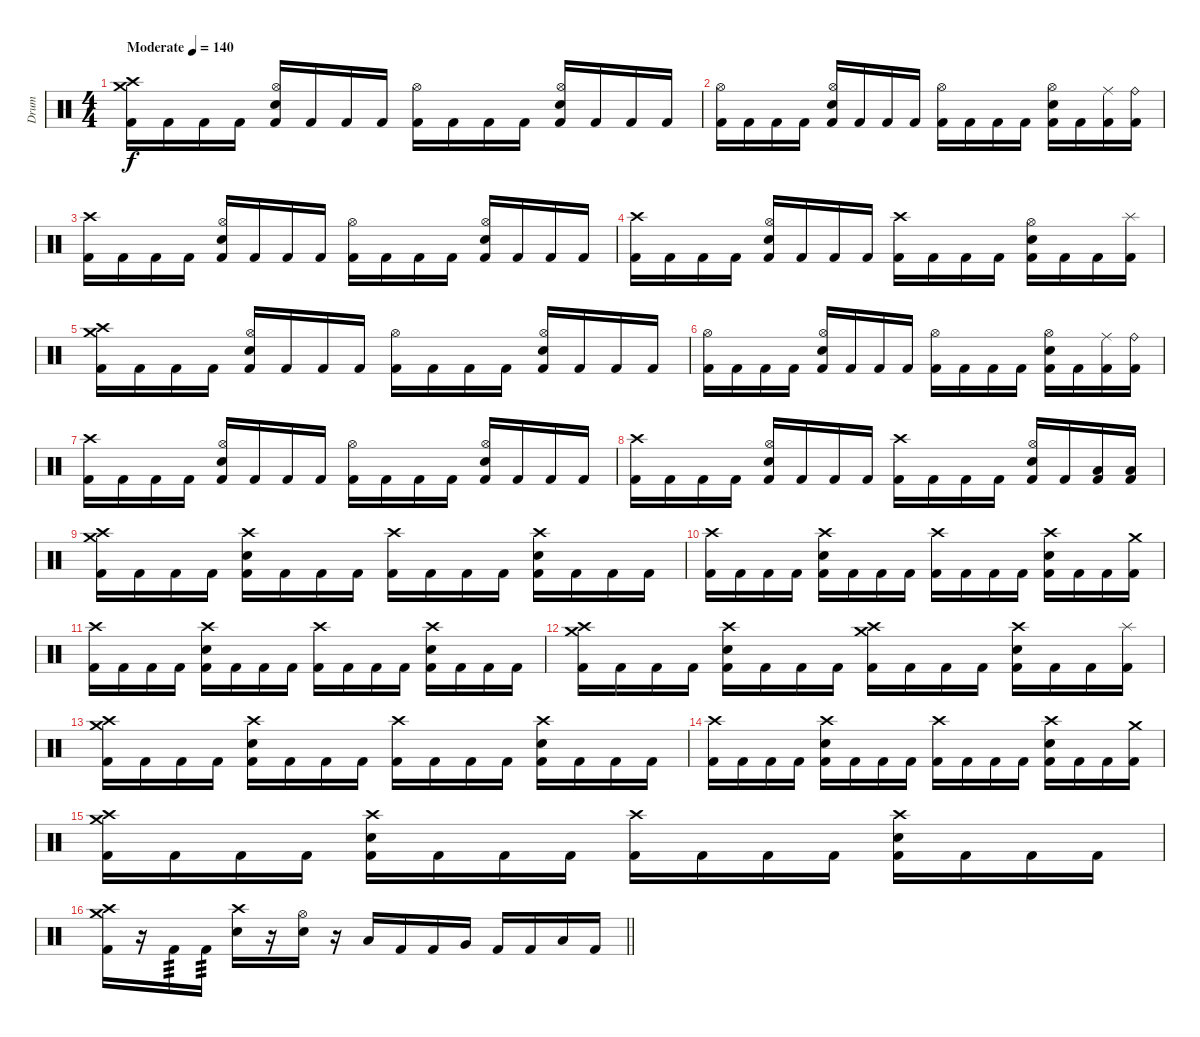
\track ("Drum" "Drum") {instrument percussion}
\staff {score}
\articulation defaults
\ts (4 4)
\section ("" "")
\tempo (140 "Moderate")
\clef neutral
\ks c
("Crash high (hit)" "Crash medium (hit)" "Kick (hit) 2").16{dy f} "Kick (hit) 2".16 "Kick (hit) 2".16 "Kick (hit) 2".16 ("Hi-Hat (open)" "Snare (hit) 2" "Kick (hit) 2").16 "Kick (hit) 2".16 "Kick (hit) 2".16 "Kick (hit) 2".16 ("Hi-Hat (open)" "Kick (hit) 2").16 "Kick (hit) 2".16 "Kick (hit) 2".16 "Kick (hit) 2".16 ("Hi-Hat (open)" "Snare (hit) 2" "Kick (hit) 2").16 "Kick (hit) 2".16 "Kick (hit) 2".16 "Kick (hit) 2".16 |
("Hi-Hat (open)" "Kick (hit) 2").16 "Kick (hit) 2".16 "Kick (hit) 2".16 "Kick (hit) 2".16 ("Hi-Hat (open)" "Snare (hit) 2" "Kick (hit) 2").16 "Kick (hit) 2".16 "Kick (hit) 2".16 "Kick (hit) 2".16 ("Hi-Hat (open)" "Kick (hit) 2").16 "Kick (hit) 2".16 "Kick (hit) 2".16 "Kick (hit) 2".16 ("Hi-Hat (open)" "Snare (hit) 2" "Kick (hit) 2").16 "Kick (hit) 2".16 ("Ride (middle)" "Kick (hit) 2").16 ("Ride (bell)" "Kick (hit) 2").16 |
("Crash high (hit)" "Kick (hit) 2").16 "Kick (hit) 2".16 "Kick (hit) 2".16 "Kick (hit) 2".16 ("Hi-Hat (open)" "Snare (hit) 2" "Kick (hit) 2").16 "Kick (hit) 2".16 "Kick (hit) 2".16 "Kick (hit) 2".16 ("Hi-Hat (open)" "Kick (hit) 2").16 "Kick (hit) 2".16 "Kick (hit) 2".16 "Kick (hit) 2".16 ("Hi-Hat (open)" "Snare (hit) 2" "Kick (hit) 2").16 "Kick (hit) 2".16 "Kick (hit) 2".16 "Kick (hit) 2".16 |
("Crash high (hit)" "Kick (hit) 2").16 "Kick (hit) 2".16 "Kick (hit) 2".16 "Kick (hit) 2".16 ("Hi-Hat (open)" "Snare (hit) 2" "Kick (hit) 2").16 "Kick (hit) 2".16 "Kick (hit) 2".16 "Kick (hit) 2".16 ("Crash high (hit)" "Kick (hit) 2").16 "Kick (hit) 2".16 "Kick (hit) 2".16 "Kick (hit) 2".16 ("Hi-Hat (open)" "Snare (hit) 2" "Kick (hit) 2").16 "Kick (hit) 2".16 "Kick (hit) 2".16 ("Splash (hit)" "Kick (hit) 2").16 |
("Crash high (hit)" "Crash medium (hit)" "Kick (hit) 2").16 "Kick (hit) 2".16 "Kick (hit) 2".16 "Kick (hit) 2".16 ("Hi-Hat (open)" "Snare (hit) 2" "Kick (hit) 2").16 "Kick (hit) 2".16 "Kick (hit) 2".16 "Kick (hit) 2".16 ("Hi-Hat (open)" "Kick (hit) 2").16 "Kick (hit) 2".16 "Kick (hit) 2".16 "Kick (hit) 2".16 ("Hi-Hat (open)" "Snare (hit) 2" "Kick (hit) 2").16 "Kick (hit) 2".16 "Kick (hit) 2".16 "Kick (hit) 2".16 |
("Hi-Hat (open)" "Kick (hit) 2").16 "Kick (hit) 2".16 "Kick (hit) 2".16 "Kick (hit) 2".16 ("Hi-Hat (open)" "Snare (hit) 2" "Kick (hit) 2").16 "Kick (hit) 2".16 "Kick (hit) 2".16 "Kick (hit) 2".16 ("Hi-Hat (open)" "Kick (hit) 2").16 "Kick (hit) 2".16 "Kick (hit) 2".16 "Kick (hit) 2".16 ("Hi-Hat (open)" "Snare (hit) 2" "Kick (hit) 2").16 "Kick (hit) 2".16 ("Ride (middle)" "Kick (hit) 2").16 ("Ride (bell)" "Kick (hit) 2").16 |
("Crash high (hit)" "Kick (hit) 2").16 "Kick (hit) 2".16 "Kick (hit) 2".16 "Kick (hit) 2".16 ("Hi-Hat (open)" "Snare (hit) 2" "Kick (hit) 2").16 "Kick (hit) 2".16 "Kick (hit) 2".16 "Kick (hit) 2".16 ("Hi-Hat (open)" "Kick (hit) 2").16 "Kick (hit) 2".16 "Kick (hit) 2".16 "Kick (hit) 2".16 ("Hi-Hat (open)" "Snare (hit) 2" "Kick (hit) 2").16 "Kick (hit) 2".16 "Kick (hit) 2".16 "Kick (hit) 2".16 |
("Crash high (hit)" "Kick (hit) 2").16 "Kick (hit) 2".16 "Kick (hit) 2".16 "Kick (hit) 2".16 ("Hi-Hat (open)" "Snare (hit) 2" "Kick (hit) 2").16 "Kick (hit) 2".16 "Kick (hit) 2".16 "Kick (hit) 2".16 ("Crash high (hit)" "Kick (hit) 2").16 "Kick (hit) 2".16 "Kick (hit) 2".16 "Kick (hit) 2".16 ("Hi-Hat (open)" "Snare (hit) 2" "Kick (hit) 2").16 "Kick (hit) 2".16 ("Low Floor Tom (hit)" "Kick (hit) 2").16 ("Low Floor Tom (hit)" "Kick (hit) 2").16 |
("Crash high (hit)" "Crash medium (hit)" "Kick (hit) 2").16 "Kick (hit) 2".16 "Kick (hit) 2".16 "Kick (hit) 2".16 ("Crash high (hit)" "Snare (hit) 2" "Kick (hit) 2").16 "Kick (hit) 2".16 "Kick (hit) 2".16 "Kick (hit) 2".16 ("Crash high (hit)" "Kick (hit) 2").16 "Kick (hit) 2".16 "Kick (hit) 2".16 "Kick (hit) 2".16 ("Crash high (hit)" "Snare (hit) 2" "Kick (hit) 2").16 "Kick (hit) 2".16 "Kick (hit) 2".16 "Kick (hit) 2".16 |
("Crash high (hit)" "Kick (hit) 2").16 "Kick (hit) 2".16 "Kick (hit) 2".16 "Kick (hit) 2".16 ("Crash high (hit)" "Snare (hit) 2" "Kick (hit) 2").16 "Kick (hit) 2".16 "Kick (hit) 2".16 "Kick (hit) 2".16 ("Crash high (hit)" "Kick (hit) 2").16 "Kick (hit) 2".16 "Kick (hit) 2".16 "Kick (hit) 2".16 ("Crash high (hit)" "Snare (hit) 2" "Kick (hit) 2").16 "Kick (hit) 2".16 "Kick (hit) 2".16 ("Crash medium (hit)" "Kick (hit) 2").16 |
("Crash high (hit)" "Kick (hit) 2").16 "Kick (hit) 2".16 "Kick (hit) 2".16 "Kick (hit) 2".16 ("Crash high (hit)" "Snare (hit) 2" "Kick (hit) 2").16 "Kick (hit) 2".16 "Kick (hit) 2".16 "Kick (hit) 2".16 ("Crash high (hit)" "Kick (hit) 2").16 "Kick (hit) 2".16 "Kick (hit) 2".16 "Kick (hit) 2".16 ("Crash high (hit)" "Snare (hit) 2" "Kick (hit) 2").16 "Kick (hit) 2".16 "Kick (hit) 2".16 "Kick (hit) 2".16 |
("Crash high (hit)" "Crash medium (hit)" "Kick (hit) 2").16 "Kick (hit) 2".16 "Kick (hit) 2".16 "Kick (hit) 2".16 ("Crash high (hit)" "Snare (hit) 2" "Kick (hit) 2").16 "Kick (hit) 2".16 "Kick (hit) 2".16 "Kick (hit) 2".16 ("Crash high (hit)" "Crash medium (hit)" "Kick (hit) 2").16 "Kick (hit) 2".16 "Kick (hit) 2".16 "Kick (hit) 2".16 ("Crash high (hit)" "Snare (hit) 2" "Kick (hit) 2").16 "Kick (hit) 2".16 "Kick (hit) 2".16 ("Splash (hit)" "Kick (hit) 2").16 |
("Crash high (hit)" "Crash medium (hit)" "Kick (hit) 2").16 "Kick (hit) 2".16 "Kick (hit) 2".16 "Kick (hit) 2".16 ("Crash high (hit)" "Snare (hit) 2" "Kick (hit) 2").16 "Kick (hit) 2".16 "Kick (hit) 2".16 "Kick (hit) 2".16 ("Crash high (hit)" "Kick (hit) 2").16 "Kick (hit) 2".16 "Kick (hit) 2".16 "Kick (hit) 2".16 ("Crash high (hit)" "Snare (hit) 2" "Kick (hit) 2").16 "Kick (hit) 2".16 "Kick (hit) 2".16 "Kick (hit) 2".16 |
("Crash high (hit)" "Kick (hit) 2").16 "Kick (hit) 2".16 "Kick (hit) 2".16 "Kick (hit) 2".16 ("Crash high (hit)" "Snare (hit) 2" "Kick (hit) 2").16 "Kick (hit) 2".16 "Kick (hit) 2".16 "Kick (hit) 2".16 ("Crash high (hit)" "Kick (hit) 2").16 "Kick (hit) 2".16 "Kick (hit) 2".16 "Kick (hit) 2".16 ("Crash high (hit)" "Snare (hit) 2" "Kick (hit) 2").16 "Kick (hit) 2".16 "Kick (hit) 2".16 ("Crash medium (hit)" "Kick (hit) 2").16 |
("Crash high (hit)" "Crash medium (hit)" "Kick (hit) 2").16 "Kick (hit) 2".16 "Kick (hit) 2".16 "Kick (hit) 2".16 ("Crash high (hit)" "Snare (hit) 2" "Kick (hit) 2").16 "Kick (hit) 2".16 "Kick (hit) 2".16 "Kick (hit) 2".16 ("Crash high (hit)" "Kick (hit) 2").16 "Kick (hit) 2".16 "Kick (hit) 2".16 "Kick (hit) 2".16 ("Crash high (hit)" "Snare (hit) 2" "Kick (hit) 2").16 "Kick (hit) 2".16 "Kick (hit) 2".16 "Kick (hit) 2".16 |
\barLineRight lightlight
("Crash high (hit)" "Crash medium (hit)" "Kick (hit) 2").16 r.16 "Kick (hit) 2".16{tp 3} "Kick (hit) 2".16{tp 3} ("Crash high (hit)" "Snare (hit) 2").16 r.16 ("Hi-Hat (open)" "Snare (hit) 2").16 r.16 "Low Tom (hit)".16 "Kick (hit) 2".16 "Kick (hit) 2".16 "Very Low Tom (hit)".16 "Kick (hit) 2".16 "Kick (hit) 2".16 "Low Floor Tom (hit)".16 "Kick (hit) 2".16
